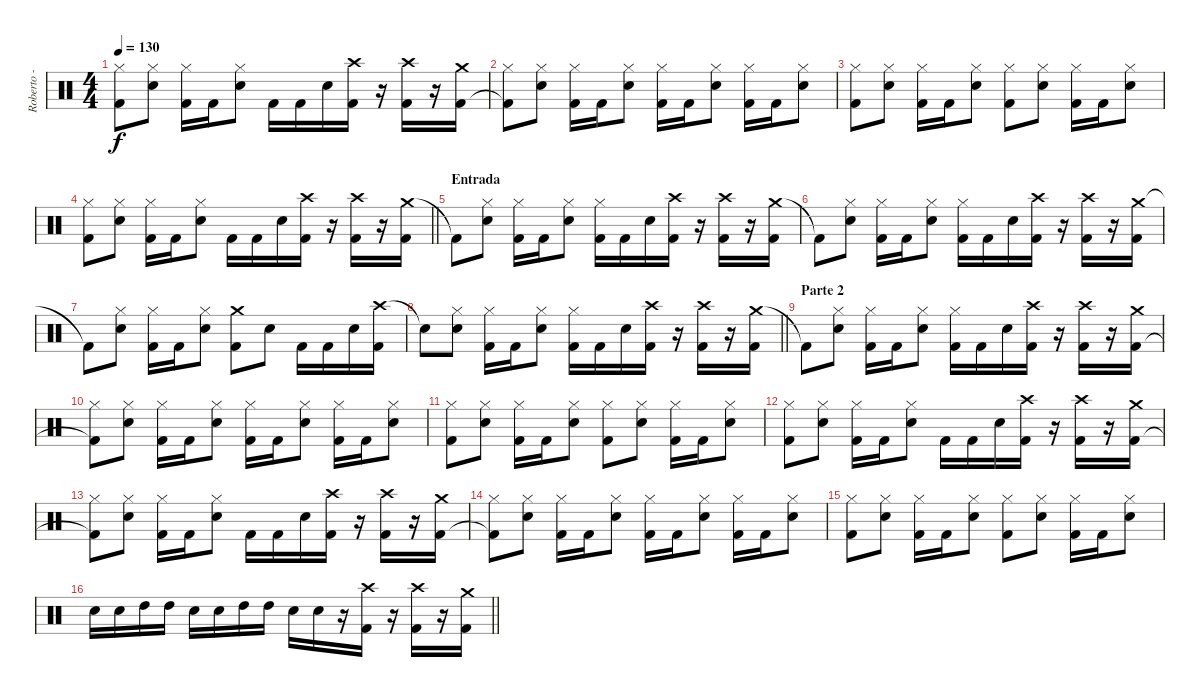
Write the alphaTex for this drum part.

\track ("Roberto - Bateria" "Roberto - ") {instrument percussion}
\staff {score}
\articulation defaults
\ts (4 4)
\tempo 130
\clef neutral
\ks c
("Hi-Hat (closed)" "Kick (hit) 2"{t}).8{dy f} ("Hi-Hat (closed)" "Snare (hit) 2").8 ("Hi-Hat (closed)" "Kick (hit) 2").16 "Kick (hit) 2".16 ("Hi-Hat (closed)" "Snare (hit) 2").8 "Kick (hit) 2".16 "Kick (hit) 2".16 "Snare (hit) 2".16 ("Crash high (hit)" "Kick (hit) 2").16 r.16 ("Crash high (hit)" "Kick (hit) 2").16 r.16 ("Crash medium (hit)" "Kick (hit) 2").16 |
("Hi-Hat (closed)" "Kick (hit) 2"{t}).8 ("Hi-Hat (closed)" "Snare (hit) 2").8 ("Hi-Hat (closed)" "Kick (hit) 2").16 "Kick (hit) 2".16 ("Hi-Hat (closed)" "Snare (hit) 2").8 ("Hi-Hat (closed)" "Kick (hit) 2").16 "Kick (hit) 2".16 ("Hi-Hat (closed)" "Snare (hit) 2").8 ("Hi-Hat (closed)" "Kick (hit) 2").16 "Kick (hit) 2".16 ("Hi-Hat (closed)" "Snare (hit) 2").8 |
("Hi-Hat (closed)" "Kick (hit) 2").8 ("Hi-Hat (closed)" "Snare (hit) 2").8 ("Hi-Hat (closed)" "Kick (hit) 2").16 "Kick (hit) 2".16 ("Hi-Hat (closed)" "Snare (hit) 2").8 ("Hi-Hat (closed)" "Kick (hit) 2").8 ("Hi-Hat (closed)" "Snare (hit) 2").8 ("Hi-Hat (closed)" "Kick (hit) 2").16 "Kick (hit) 2".16 ("Hi-Hat (closed)" "Snare (hit) 2").8 |
\barLineRight lightlight
("Hi-Hat (closed)" "Kick (hit) 2").8 ("Hi-Hat (closed)" "Snare (hit) 2").8 ("Hi-Hat (closed)" "Kick (hit) 2").16 "Kick (hit) 2".16 ("Hi-Hat (closed)" "Snare (hit) 2").8 "Kick (hit) 2".16 "Kick (hit) 2".16 "Snare (hit) 2".16 ("Crash high (hit)" "Kick (hit) 2").16 r.16 ("Crash high (hit)" "Kick (hit) 2").16 r.16 ("Crash medium (hit)" "Kick (hit) 2").16 |
\section ("" "Entrada")
"Kick (hit) 2"{t}.8 ("Hi-Hat (closed)" "Snare (hit) 2").8 ("Hi-Hat (closed)" "Kick (hit) 2").16 "Kick (hit) 2".16 ("Hi-Hat (closed)" "Snare (hit) 2").8 ("Hi-Hat (closed)" "Kick (hit) 2").16 "Kick (hit) 2".16 "Snare (hit) 2".16 ("Crash high (hit)" "Kick (hit) 2").16 r.16 ("Crash high (hit)" "Kick (hit) 2").16 r.16 ("Crash medium (hit)" "Kick (hit) 2").16 |
"Kick (hit) 2"{t}.8 ("Hi-Hat (closed)" "Snare (hit) 2").8 ("Hi-Hat (closed)" "Kick (hit) 2").16 "Kick (hit) 2".16 ("Hi-Hat (closed)" "Snare (hit) 2").8 ("Hi-Hat (closed)" "Kick (hit) 2").16 "Kick (hit) 2".16 "Snare (hit) 2".16 ("Crash high (hit)" "Kick (hit) 2").16 r.16 ("Crash high (hit)" "Kick (hit) 2").16 r.16 ("Crash medium (hit)" "Kick (hit) 2").16 |
"Kick (hit) 2"{t}.8 ("Hi-Hat (closed)" "Snare (hit) 2").8 ("Hi-Hat (closed)" "Kick (hit) 2").16 "Kick (hit) 2".16 ("Hi-Hat (closed)" "Snare (hit) 2").8 ("Crash medium (hit)" "Kick (hit) 2").8 "Snare (hit) 2".8 "Kick (hit) 2".16 "Kick (hit) 2".16 "Snare (hit) 2".16 ("Crash high (hit)" "Kick (hit) 2").16 |
\barLineRight lightlight "Snare (hit)"{t}.8
("Hi-Hat (closed)" "Snare (hit) 2").8 ("Hi-Hat (closed)" "Kick (hit) 2").16 "Kick (hit) 2".16 ("Hi-Hat (closed)" "Snare (hit) 2").8 ("Hi-Hat (closed)" "Kick (hit) 2").16 "Kick (hit) 2".16 "Snare (hit) 2".16 ("Crash high (hit)" "Kick (hit) 2").16 r.16 ("Crash high (hit)" "Kick (hit) 2").16 r.16 ("Crash medium (hit)" "Kick (hit) 2").16 |
\section ("" "Parte 2")
"Kick (hit) 2"{t}.8 ("Hi-Hat (closed)" "Snare (hit) 2").8 ("Hi-Hat (closed)" "Kick (hit) 2").16 "Kick (hit) 2".16 ("Hi-Hat (closed)" "Snare (hit) 2").8 ("Hi-Hat (closed)" "Kick (hit) 2").16 "Kick (hit) 2".16 "Snare (hit) 2".16 ("Crash high (hit)" "Kick (hit) 2").16 r.16 ("Crash high (hit)" "Kick (hit) 2").16 r.16 ("Crash medium (hit)" "Kick (hit) 2").16 |
("Hi-Hat (closed)" "Kick (hit) 2"{t}).8 ("Hi-Hat (closed)" "Snare (hit) 2").8 ("Hi-Hat (closed)" "Kick (hit) 2").16 "Kick (hit) 2".16 ("Hi-Hat (closed)" "Snare (hit) 2").8 ("Hi-Hat (closed)" "Kick (hit) 2").16 "Kick (hit) 2".16 ("Hi-Hat (closed)" "Snare (hit) 2").8 ("Hi-Hat (closed)" "Kick (hit) 2").16 "Kick (hit) 2".16 ("Hi-Hat (closed)" "Snare (hit) 2").8 |
("Hi-Hat (closed)" "Kick (hit) 2").8 ("Hi-Hat (closed)" "Snare (hit) 2").8 ("Hi-Hat (closed)" "Kick (hit) 2").16 "Kick (hit) 2".16 ("Hi-Hat (closed)" "Snare (hit) 2").8 ("Hi-Hat (closed)" "Kick (hit) 2").8 ("Hi-Hat (closed)" "Snare (hit) 2").8 ("Hi-Hat (closed)" "Kick (hit) 2").16 "Kick (hit) 2".16 ("Hi-Hat (closed)" "Snare (hit) 2").8 |
("Hi-Hat (closed)" "Kick (hit) 2").8 ("Hi-Hat (closed)" "Snare (hit) 2").8 ("Hi-Hat (closed)" "Kick (hit) 2").16 "Kick (hit) 2".16 ("Hi-Hat (closed)" "Snare (hit) 2").8 "Kick (hit) 2".16 "Kick (hit) 2".16 "Snare (hit) 2".16 ("Crash high (hit)" "Kick (hit) 2").16 r.16 ("Crash high (hit)" "Kick (hit) 2").16 r.16 ("Crash medium (hit)" "Kick (hit) 2").16 |
("Hi-Hat (closed)" "Kick (hit) 2"{t}).8 ("Hi-Hat (closed)" "Snare (hit) 2").8 ("Hi-Hat (closed)" "Kick (hit) 2").16 "Kick (hit) 2".16 ("Hi-Hat (closed)" "Snare (hit) 2").8 "Kick (hit) 2".16 "Kick (hit) 2".16 "Snare (hit) 2".16 ("Crash high (hit)" "Kick (hit) 2").16 r.16 ("Crash high (hit)" "Kick (hit) 2").16 r.16 ("Crash medium (hit)" "Kick (hit) 2").16 |
("Hi-Hat (closed)" "Kick (hit) 2"{t}).8 ("Hi-Hat (closed)" "Snare (hit) 2").8 ("Hi-Hat (closed)" "Kick (hit) 2").16 "Kick (hit) 2".16 ("Hi-Hat (closed)" "Snare (hit) 2").8 ("Hi-Hat (closed)" "Kick (hit) 2").16 "Kick (hit) 2".16 ("Hi-Hat (closed)" "Snare (hit) 2").8 ("Hi-Hat (closed)" "Kick (hit) 2").16 "Kick (hit) 2".16 ("Hi-Hat (closed)" "Snare (hit) 2").8 |
("Hi-Hat (closed)" "Kick (hit) 2").8 ("Hi-Hat (closed)" "Snare (hit) 2").8 ("Hi-Hat (closed)" "Kick (hit) 2").16 "Kick (hit) 2".16 ("Hi-Hat (closed)" "Snare (hit) 2").8 ("Hi-Hat (closed)" "Kick (hit) 2").8 ("Hi-Hat (closed)" "Snare (hit) 2").8 ("Hi-Hat (closed)" "Kick (hit) 2").16 "Kick (hit) 2".16 ("Hi-Hat (closed)" "Snare (hit) 2").8 |
\barLineRight lightlight "Snare (hit) 2".16 "Snare (hit) 2".16 "High Tom (hit)".16 "High Tom (hit)".16 "Snare (hit) 2".16 "Snare (hit) 2".16 "High Tom (hit)".16 "High Tom (hit)".16 "Snare (hit) 2".16 "Snare (hit) 2".16
r.16 ("Crash high (hit)" "Kick (hit) 2").16 r.16 ("Crash high (hit)" "Kick (hit) 2").16 r.16 ("Crash medium (hit)" "Kick (hit) 2").16
